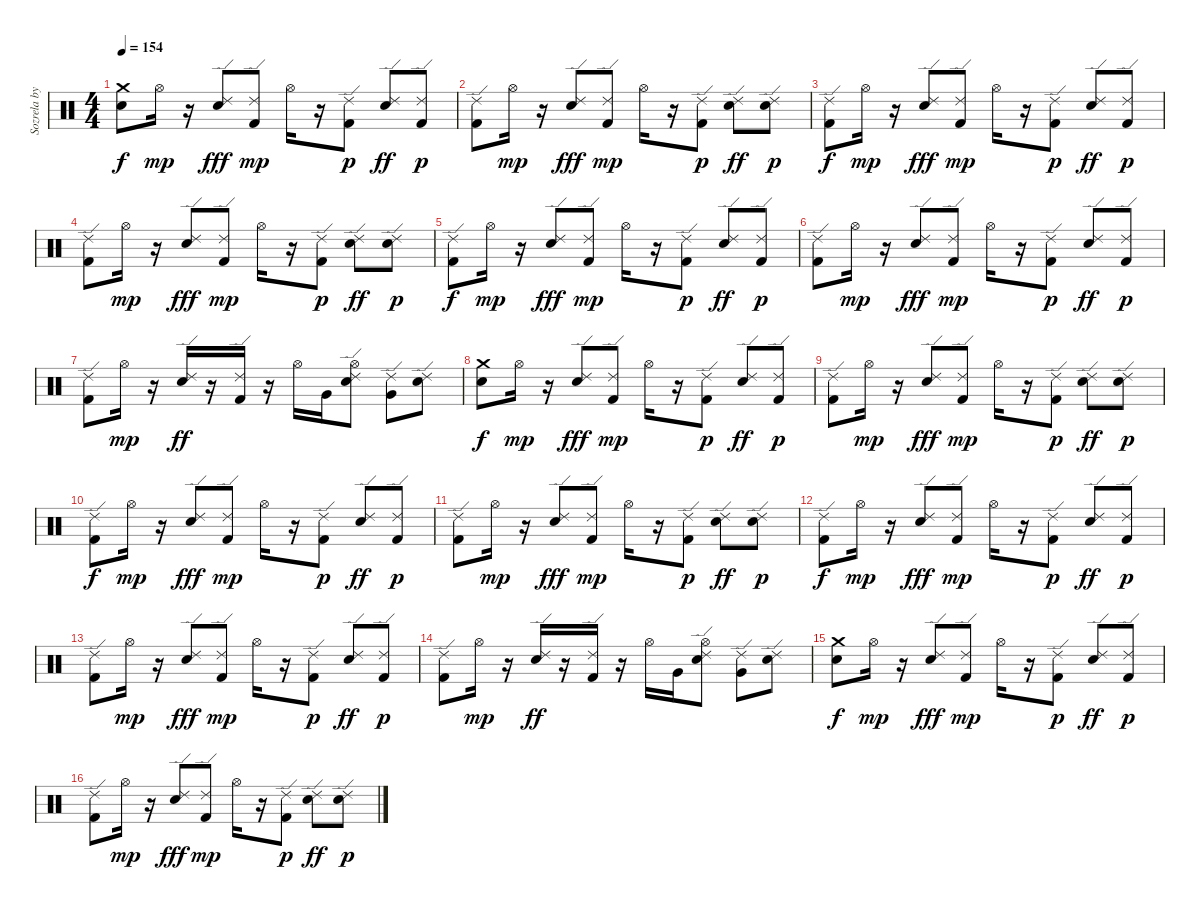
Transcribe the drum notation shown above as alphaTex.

\track ("Sozrela by Anton" "Sozrela by") {instrument percussion}
\staff {score}
\articulation defaults
\ts (4 4)
\tempo 154
\clef neutral
\ks c
("Electric Snare (hit)" "Crash medium (hit)").8{dy f} "Hi-Hat (open)".16{dy mp} r.16 ("Ride (edge) 2" "Snare (hit) 2").8{dy fff} ("Ride (edge) 2" "Kick (hit) 2").8{dy mp} "Hi-Hat (open)".16 r.16 ("Ride (edge) 2" "Kick (hit) 2").8{dy p} ("Ride (edge) 2" "Snare (hit) 2").8{dy ff} ("Ride (edge) 2" "Kick (hit) 2").8{dy p} |
("Kick (hit) 2" "Ride (edge) 2").8 "Hi-Hat (open)".16{dy mp} r.16 ("Ride (edge) 2" "Snare (hit) 2").8{dy fff} ("Ride (edge) 2" "Kick (hit) 2").8{dy mp} "Hi-Hat (open)".16 r.16 ("Ride (edge) 2" "Kick (hit) 2").8{dy p} ("Ride (edge) 2" "Snare (hit) 2").8{dy ff} ("Ride (edge) 2" "Snare (hit) 2").8{dy p} |
("Kick (hit) 2" "Ride (edge) 2").8{dy f} "Hi-Hat (open)".16{dy mp} r.16 ("Ride (edge) 2" "Snare (hit) 2").8{dy fff} ("Ride (edge) 2" "Kick (hit) 2").8{dy mp} "Hi-Hat (open)".16 r.16 ("Ride (edge) 2" "Kick (hit) 2").8{dy p} ("Ride (edge) 2" "Snare (hit) 2").8{dy ff} ("Ride (edge) 2" "Kick (hit) 2").8{dy p} |
("Kick (hit) 2" "Ride (edge) 2").8 "Hi-Hat (open)".16{dy mp} r.16 ("Ride (edge) 2" "Snare (hit) 2").8{dy fff} ("Ride (edge) 2" "Kick (hit) 2").8{dy mp} "Hi-Hat (open)".16 r.16 ("Ride (edge) 2" "Kick (hit) 2").8{dy p} ("Ride (edge) 2" "Snare (hit) 2").8{dy ff} ("Ride (edge) 2" "Snare (hit) 2").8{dy p} |
("Kick (hit) 2" "Ride (edge) 2").8{dy f} "Hi-Hat (open)".16{dy mp} r.16 ("Ride (edge) 2" "Snare (hit) 2").8{dy fff} ("Ride (edge) 2" "Kick (hit) 2").8{dy mp} "Hi-Hat (open)".16 r.16 ("Ride (edge) 2" "Kick (hit) 2").8{dy p} ("Ride (edge) 2" "Snare (hit) 2").8{dy ff} ("Ride (edge) 2" "Kick (hit) 2").8{dy p} |
("Kick (hit) 2" "Ride (edge) 2").8 "Hi-Hat (open)".16{dy mp} r.16 ("Ride (edge) 2" "Snare (hit) 2").8{dy fff} ("Ride (edge) 2" "Kick (hit) 2").8{dy mp} "Hi-Hat (open)".16 r.16 ("Ride (edge) 2" "Kick (hit) 2").8{dy p} ("Ride (edge) 2" "Snare (hit) 2").8{dy ff} ("Ride (edge) 2" "Kick (hit) 2").8{dy p} |
("Kick (hit) 2" "Ride (edge) 2").8 "Hi-Hat (open)".16{dy mp} r.16 ("Snare (hit) 2" "Ride (edge) 2").16{dy ff} r.16 ("Kick (hit) 2" "Ride (edge) 2").16 r.16 "Hi-Hat (open)".16 "Very Low Tom (hit)".16 ("Hi-Hat (open)" "Ride (edge) 2" "Electric Snare (hit)").8 ("Ride (edge) 2" "Very Low Tom (hit)").8 ("Ride (edge) 2" "Electric Snare (hit)").8 |
("Electric Snare (hit)" "Crash medium (hit)").8{dy f} "Hi-Hat (open)".16{dy mp} r.16 ("Ride (edge) 2" "Snare (hit) 2").8{dy fff} ("Ride (edge) 2" "Kick (hit) 2").8{dy mp} "Hi-Hat (open)".16 r.16 ("Ride (edge) 2" "Kick (hit) 2").8{dy p} ("Ride (edge) 2" "Snare (hit) 2").8{dy ff} ("Ride (edge) 2" "Kick (hit) 2").8{dy p} |
("Kick (hit) 2" "Ride (edge) 2").8 "Hi-Hat (open)".16{dy mp} r.16 ("Ride (edge) 2" "Snare (hit) 2").8{dy fff} ("Ride (edge) 2" "Kick (hit) 2").8{dy mp} "Hi-Hat (open)".16 r.16 ("Ride (edge) 2" "Kick (hit) 2").8{dy p} ("Ride (edge) 2" "Snare (hit) 2").8{dy ff} ("Ride (edge) 2" "Snare (hit) 2").8{dy p} |
("Kick (hit) 2" "Ride (edge) 2").8{dy f} "Hi-Hat (open)".16{dy mp} r.16 ("Ride (edge) 2" "Snare (hit) 2").8{dy fff} ("Ride (edge) 2" "Kick (hit) 2").8{dy mp} "Hi-Hat (open)".16 r.16 ("Ride (edge) 2" "Kick (hit) 2").8{dy p} ("Ride (edge) 2" "Snare (hit) 2").8{dy ff} ("Ride (edge) 2" "Kick (hit) 2").8{dy p} |
("Kick (hit) 2" "Ride (edge) 2").8 "Hi-Hat (open)".16{dy mp} r.16 ("Ride (edge) 2" "Snare (hit) 2").8{dy fff} ("Ride (edge) 2" "Kick (hit) 2").8{dy mp} "Hi-Hat (open)".16 r.16 ("Ride (edge) 2" "Kick (hit) 2").8{dy p} ("Ride (edge) 2" "Snare (hit) 2").8{dy ff} ("Ride (edge) 2" "Snare (hit) 2").8{dy p} |
("Kick (hit) 2" "Ride (edge) 2").8{dy f} "Hi-Hat (open)".16{dy mp} r.16 ("Ride (edge) 2" "Snare (hit) 2").8{dy fff} ("Ride (edge) 2" "Kick (hit) 2").8{dy mp} "Hi-Hat (open)".16 r.16 ("Ride (edge) 2" "Kick (hit) 2").8{dy p} ("Ride (edge) 2" "Snare (hit) 2").8{dy ff} ("Ride (edge) 2" "Kick (hit) 2").8{dy p} |
("Kick (hit) 2" "Ride (edge) 2").8 "Hi-Hat (open)".16{dy mp} r.16 ("Ride (edge) 2" "Snare (hit) 2").8{dy fff} ("Ride (edge) 2" "Kick (hit) 2").8{dy mp} "Hi-Hat (open)".16 r.16 ("Ride (edge) 2" "Kick (hit) 2").8{dy p} ("Ride (edge) 2" "Snare (hit) 2").8{dy ff} ("Ride (edge) 2" "Kick (hit) 2").8{dy p} |
("Kick (hit) 2" "Ride (edge) 2").8 "Hi-Hat (open)".16{dy mp} r.16 ("Snare (hit) 2" "Ride (edge) 2").16{dy ff} r.16 ("Kick (hit) 2" "Ride (edge) 2").16 r.16 "Hi-Hat (open)".16 "Very Low Tom (hit)".16 ("Hi-Hat (open)" "Ride (edge) 2" "Electric Snare (hit)").8 ("Ride (edge) 2" "Very Low Tom (hit)").8 ("Ride (edge) 2" "Electric Snare (hit)").8 |
("Electric Snare (hit)" "Crash medium (hit)").8{dy f} "Hi-Hat (open)".16{dy mp} r.16 ("Ride (edge) 2" "Snare (hit) 2").8{dy fff} ("Ride (edge) 2" "Kick (hit) 2").8{dy mp} "Hi-Hat (open)".16 r.16 ("Ride (edge) 2" "Kick (hit) 2").8{dy p} ("Ride (edge) 2" "Snare (hit) 2").8{dy ff} ("Ride (edge) 2" "Kick (hit) 2").8{dy p} |
("Kick (hit) 2" "Ride (edge) 2").8 "Hi-Hat (open)".16{dy mp} r.16 ("Ride (edge) 2" "Snare (hit) 2").8{dy fff} ("Ride (edge) 2" "Kick (hit) 2").8{dy mp} "Hi-Hat (open)".16 r.16 ("Ride (edge) 2" "Kick (hit) 2").8{dy p} ("Ride (edge) 2" "Snare (hit) 2").8{dy ff} ("Ride (edge) 2" "Snare (hit) 2").8{dy p}
